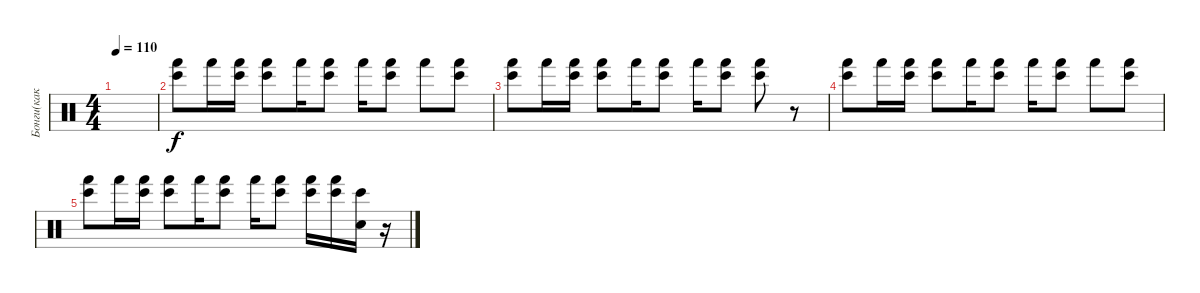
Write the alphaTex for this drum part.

\track ("Бонги(как вариант)" "Бонги(как ") {instrument percussion}
\staff {score}
\articulation defaults
\ts (4 4)
\tempo 110
\clef neutral
\ks c
|
("Bongo High (hit)" "Hand (hit)").8 "Hand (hit)".16 ("Bongo High (hit)" "Hand (hit)").16 ("Bongo High (hit)" "Hand (hit)").8 "Hand (hit)".16 ("Bongo High (hit)" "Hand (hit)").8 "Hand (hit)".16 ("Bongo High (hit)" "Hand (hit)").8 "Hand (hit)".8 ("Bongo High (hit)" "Hand (hit)").8 |
("Bongo High (hit)" "Hand (hit)").8 "Hand (hit)".16 ("Bongo High (hit)" "Hand (hit)").16 ("Bongo High (hit)" "Hand (hit)").8 "Hand (hit)".16 ("Bongo High (hit)" "Hand (hit)").8 "Hand (hit)".16 ("Bongo High (hit)" "Hand (hit)").8 ("Bongo High (hit)" "Hand (hit)").8 r.8 |
("Bongo High (hit)" "Hand (hit)").8 "Hand (hit)".16 ("Bongo High (hit)" "Hand (hit)").16 ("Bongo High (hit)" "Hand (hit)").8 "Hand (hit)".16 ("Bongo High (hit)" "Hand (hit)").8 "Hand (hit)".16 ("Bongo High (hit)" "Hand (hit)").8 "Hand (hit)".8 ("Bongo High (hit)" "Hand (hit)").8 |
("Bongo High (hit)" "Hand (hit)").8 "Hand (hit)".16 ("Bongo High (hit)" "Hand (hit)").16 ("Bongo High (hit)" "Hand (hit)").8 "Hand (hit)".16 ("Bongo High (hit)" "Hand (hit)").8 "Hand (hit)".16 ("Bongo High (hit)" "Hand (hit)").8 ("Bongo High (hit)" "Hand (hit)").16 ("Bongo High (hit)" "Hand (hit)").16 ("Bongo High (hit)" "Snare (hit)").16 r.16
